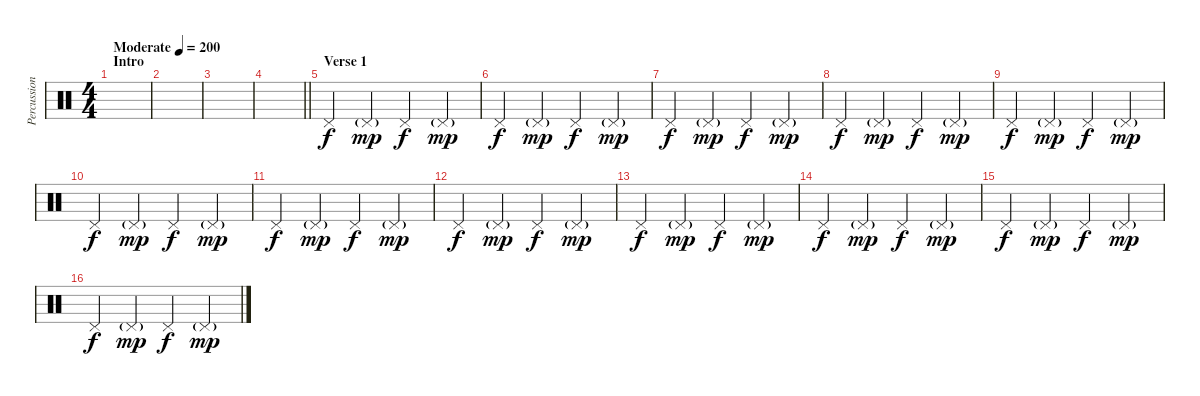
\track ("Percussion" "Percussion") {instrument percussion}
\staff {score}
\articulation defaults
\ts (4 4)
\section ("" "Intro")
\tempo (200 "Moderate")
\clef neutral
\ks c
|
|
|
\barLineRight lightlight
|
\section ("" "Verse 1")
"Pedal Hi-Hat (hit)".4 "Pedal Hi-Hat (hit)"{g}.4{dy mp} "Pedal Hi-Hat (hit)".4{dy f} "Pedal Hi-Hat (hit)"{g}.4{dy mp} |
"Pedal Hi-Hat (hit)".4{dy f} "Pedal Hi-Hat (hit)"{g}.4{dy mp} "Pedal Hi-Hat (hit)".4{dy f} "Pedal Hi-Hat (hit)"{g}.4{dy mp} |
"Pedal Hi-Hat (hit)".4{dy f} "Pedal Hi-Hat (hit)"{g}.4{dy mp} "Pedal Hi-Hat (hit)".4{dy f} "Pedal Hi-Hat (hit)"{g}.4{dy mp} |
"Pedal Hi-Hat (hit)".4{dy f} "Pedal Hi-Hat (hit)"{g}.4{dy mp} "Pedal Hi-Hat (hit)".4{dy f} "Pedal Hi-Hat (hit)"{g}.4{dy mp} |
"Pedal Hi-Hat (hit)".4{dy f} "Pedal Hi-Hat (hit)"{g}.4{dy mp} "Pedal Hi-Hat (hit)".4{dy f} "Pedal Hi-Hat (hit)"{g}.4{dy mp} |
"Pedal Hi-Hat (hit)".4{dy f} "Pedal Hi-Hat (hit)"{g}.4{dy mp} "Pedal Hi-Hat (hit)".4{dy f} "Pedal Hi-Hat (hit)"{g}.4{dy mp} |
"Pedal Hi-Hat (hit)".4{dy f} "Pedal Hi-Hat (hit)"{g}.4{dy mp} "Pedal Hi-Hat (hit)".4{dy f} "Pedal Hi-Hat (hit)"{g}.4{dy mp} |
"Pedal Hi-Hat (hit)".4{dy f} "Pedal Hi-Hat (hit)"{g}.4{dy mp} "Pedal Hi-Hat (hit)".4{dy f} "Pedal Hi-Hat (hit)"{g}.4{dy mp} |
"Pedal Hi-Hat (hit)".4{dy f} "Pedal Hi-Hat (hit)"{g}.4{dy mp} "Pedal Hi-Hat (hit)".4{dy f} "Pedal Hi-Hat (hit)"{g}.4{dy mp} |
"Pedal Hi-Hat (hit)".4{dy f} "Pedal Hi-Hat (hit)"{g}.4{dy mp} "Pedal Hi-Hat (hit)".4{dy f} "Pedal Hi-Hat (hit)"{g}.4{dy mp} |
"Pedal Hi-Hat (hit)".4{dy f} "Pedal Hi-Hat (hit)"{g}.4{dy mp} "Pedal Hi-Hat (hit)".4{dy f} "Pedal Hi-Hat (hit)"{g}.4{dy mp} |
"Pedal Hi-Hat (hit)".4{dy f} "Pedal Hi-Hat (hit)"{g}.4{dy mp} "Pedal Hi-Hat (hit)".4{dy f} "Pedal Hi-Hat (hit)"{g}.4{dy mp}
